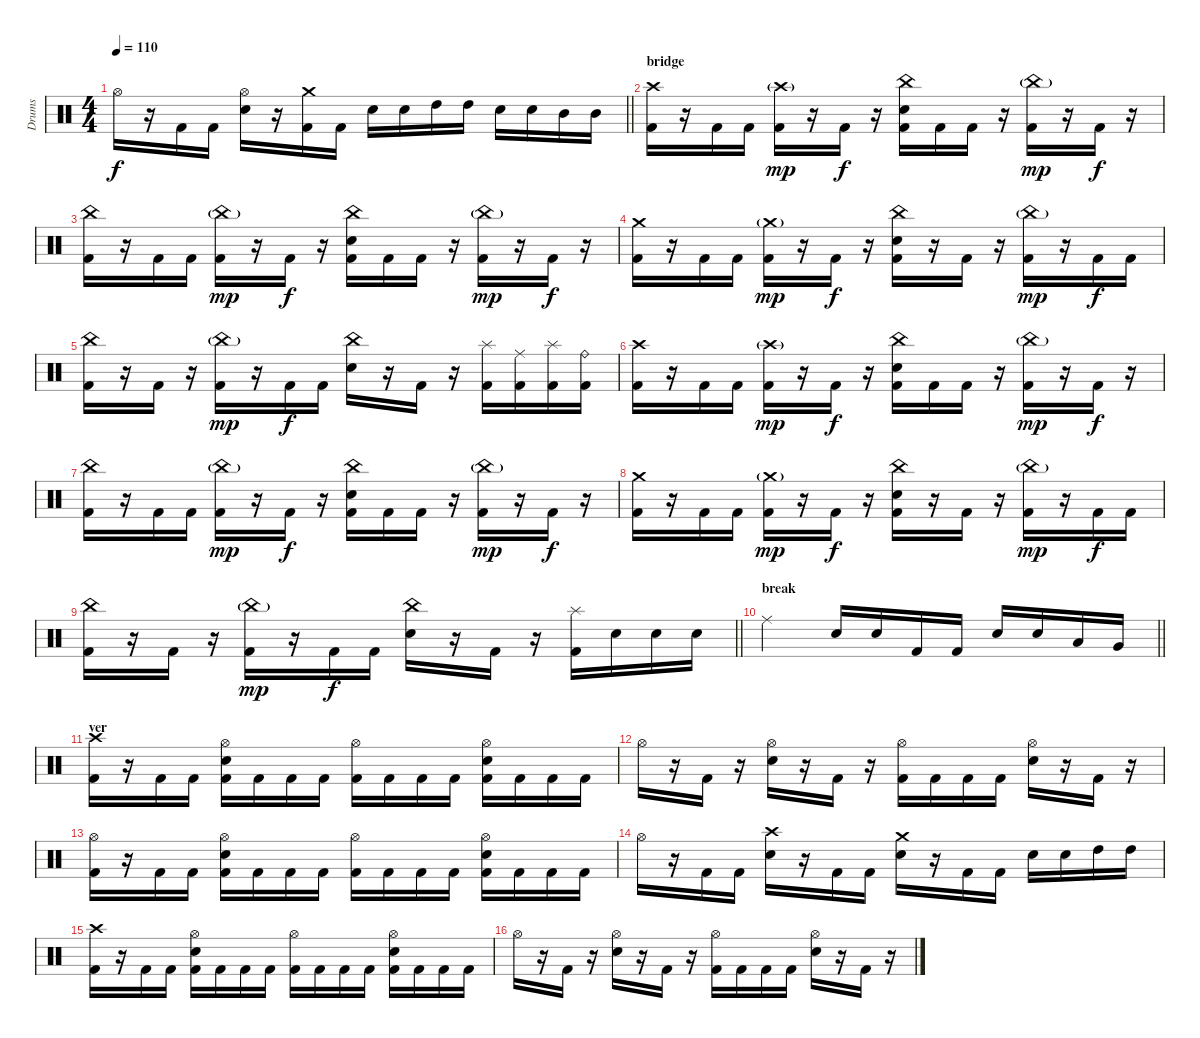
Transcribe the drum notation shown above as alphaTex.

\track ("Drums" "Drums") {instrument percussion}
\staff {score}
\articulation defaults
\ts (4 4)
\tempo 110
\clef neutral
\barLineRight lightlight
\ks c "Hi-Hat (open)".16{dy f}
r.16 "Kick (hit) 2".16 "Kick (hit) 2".16 ("Hi-Hat (open)" "Electric Snare (hit)").16 r.16 ("Crash medium (hit)" "Kick (hit) 2").16 "Kick (hit) 2".16 "Electric Snare (hit)".16 "Electric Snare (hit)".16 "High Tom (hit)".16 "High Tom (hit)".16 "Electric Snare (hit)".16 "Electric Snare (hit)".16 "Mid Tom (hit)".16 "Mid Tom (hit)".16 |
\section ("" "bridge")
("Crash high (hit)" "Kick (hit) 2").16 r.16 "Kick (hit) 2".16 "Kick (hit) 2".16 ("Crash high (hit)"{g} "Kick (hit) 2").16{dy mp} r.16 "Kick (hit) 2".16{dy f} r.16 ("China (hit)" "Electric Snare (hit)" "Kick (hit) 2").16 "Kick (hit) 2".16 "Kick (hit) 2".16 r.16 ("China (hit)"{g} "Kick (hit) 2").16{dy mp} r.16 "Kick (hit) 2".16{dy f} r.16 |
("China (hit)" "Kick (hit) 2").16 r.16 "Kick (hit) 2".16 "Kick (hit) 2".16 ("China (hit)"{g} "Kick (hit) 2").16{dy mp} r.16 "Kick (hit) 2".16{dy f} r.16 ("China (hit)" "Electric Snare (hit)" "Kick (hit) 2").16 "Kick (hit) 2".16 "Kick (hit) 2".16 r.16 ("China (hit)"{g} "Kick (hit) 2").16{dy mp} r.16 "Kick (hit) 2".16{dy f} r.16 |
("Crash medium (hit)" "Kick (hit) 2").16 r.16 "Kick (hit) 2".16 "Kick (hit) 2".16 ("Crash medium (hit)"{g} "Kick (hit) 2").16{dy mp} r.16 "Kick (hit) 2".16{dy f} r.16 ("China (hit)" "Electric Snare (hit)" "Kick (hit) 2").16 r.16 "Kick (hit) 2".16 r.16 ("China (hit)"{g} "Kick (hit) 2").16{dy mp} r.16 "Kick (hit) 2".16{dy f} "Kick (hit) 2".16 |
("China (hit)" "Kick (hit) 2").16 r.16 "Kick (hit) 2".16 r.16 ("China (hit)"{g} "Kick (hit) 2").16{dy mp} r.16 "Kick (hit) 2".16{dy f} "Kick (hit) 2".16 ("China (hit)" "Electric Snare (hit)").16 r.16 "Kick (hit) 2".16 r.16 ("Splash (hit)" "Kick (hit) 2").16 ("Ride (middle)" "Kick (hit) 2").16 ("Splash (hit)" "Kick (hit) 2").16 ("Ride (bell)" "Kick (hit) 2").16 |
("Crash high (hit)" "Kick (hit) 2").16 r.16 "Kick (hit) 2".16 "Kick (hit) 2".16 ("Crash high (hit)"{g} "Kick (hit) 2").16{dy mp} r.16 "Kick (hit) 2".16{dy f} r.16 ("China (hit)" "Electric Snare (hit)" "Kick (hit) 2").16 "Kick (hit) 2".16 "Kick (hit) 2".16 r.16 ("China (hit)"{g} "Kick (hit) 2").16{dy mp} r.16 "Kick (hit) 2".16{dy f} r.16 |
("China (hit)" "Kick (hit) 2").16 r.16 "Kick (hit) 2".16 "Kick (hit) 2".16 ("China (hit)"{g} "Kick (hit) 2").16{dy mp} r.16 "Kick (hit) 2".16{dy f} r.16 ("China (hit)" "Electric Snare (hit)" "Kick (hit) 2").16 "Kick (hit) 2".16 "Kick (hit) 2".16 r.16 ("China (hit)"{g} "Kick (hit) 2").16{dy mp} r.16 "Kick (hit) 2".16{dy f} r.16 |
("Crash medium (hit)" "Kick (hit) 2").16 r.16 "Kick (hit) 2".16 "Kick (hit) 2".16 ("Crash medium (hit)"{g} "Kick (hit) 2").16{dy mp} r.16 "Kick (hit) 2".16{dy f} r.16 ("China (hit)" "Electric Snare (hit)" "Kick (hit) 2").16 r.16 "Kick (hit) 2".16 r.16 ("China (hit)"{g} "Kick (hit) 2").16{dy mp} r.16 "Kick (hit) 2".16{dy f} "Kick (hit) 2".16 |
\barLineRight lightlight
("China (hit)" "Kick (hit) 2").16 r.16 "Kick (hit) 2".16 r.16 ("China (hit)"{g} "Kick (hit) 2").16{dy mp} r.16 "Kick (hit) 2".16{dy f} "Kick (hit) 2".16 ("China (hit)" "Electric Snare (hit)").16 r.16 "Kick (hit) 2".16 r.16 ("Splash (hit)" "Kick (hit) 2").16 "Electric Snare (hit)".16 "Electric Snare (hit)".16 "Electric Snare (hit)".16 |
\section ("" "break")
\barLineRight lightlight "Ride (middle)".2 "Electric Snare (hit)".16 "Electric Snare (hit)".16 "Kick (hit) 2".16 "Kick (hit) 2".16 "Electric Snare (hit)".16 "Electric Snare (hit)".16 "Low Tom (hit)".16 "Very Low Tom (hit)".16
|
\section ("" "ver")
("Crash high (hit)" "Kick (hit) 2").16 r.16 "Kick (hit) 2".16 "Kick (hit) 2".16 ("Hi-Hat (open)" "Electric Snare (hit)" "Kick (hit) 2").16 "Kick (hit) 2".16 "Kick (hit) 2".16 "Kick (hit) 2".16 ("Hi-Hat (open)" "Kick (hit) 2").16 "Kick (hit) 2".16 "Kick (hit) 2".16 "Kick (hit) 2".16 ("Hi-Hat (open)" "Electric Snare (hit)" "Kick (hit) 2").16 "Kick (hit) 2".16 "Kick (hit) 2".16 "Kick (hit) 2".16 |
"Hi-Hat (open)".16 r.16 "Kick (hit) 2".16 r.16 ("Hi-Hat (open)" "Electric Snare (hit)").16 r.16 "Kick (hit) 2".16 r.16 ("Hi-Hat (open)" "Kick (hit) 2").16 "Kick (hit) 2".16 "Kick (hit) 2".16 "Kick (hit) 2".16 ("Hi-Hat (open)" "Electric Snare (hit)").16 r.16 "Kick (hit) 2".16 r.16 |
("Hi-Hat (open)" "Kick (hit) 2").16 r.16 "Kick (hit) 2".16 "Kick (hit) 2".16 ("Hi-Hat (open)" "Electric Snare (hit)" "Kick (hit) 2").16 "Kick (hit) 2".16 "Kick (hit) 2".16 "Kick (hit) 2".16 ("Hi-Hat (open)" "Kick (hit) 2").16 "Kick (hit) 2".16 "Kick (hit) 2".16 "Kick (hit) 2".16 ("Hi-Hat (open)" "Electric Snare (hit)" "Kick (hit) 2").16 "Kick (hit) 2".16 "Kick (hit) 2".16 "Kick (hit) 2".16 |
"Hi-Hat (open)".16 r.16 "Kick (hit) 2".16 "Kick (hit) 2".16 ("Crash high (hit)" "Electric Snare (hit)").16 r.16 "Kick (hit) 2".16 "Kick (hit) 2".16 ("Crash medium (hit)" "Electric Snare (hit)").16 r.16 "Kick (hit) 2".16 "Kick (hit) 2".16 "Electric Snare (hit)".16 "Electric Snare (hit)".16 "High Tom (hit)".16 "High Tom (hit)".16 |
("Crash high (hit)" "Kick (hit) 2").16 r.16 "Kick (hit) 2".16 "Kick (hit) 2".16 ("Hi-Hat (open)" "Electric Snare (hit)" "Kick (hit) 2").16 "Kick (hit) 2".16 "Kick (hit) 2".16 "Kick (hit) 2".16 ("Hi-Hat (open)" "Kick (hit) 2").16 "Kick (hit) 2".16 "Kick (hit) 2".16 "Kick (hit) 2".16 ("Hi-Hat (open)" "Electric Snare (hit)" "Kick (hit) 2").16 "Kick (hit) 2".16 "Kick (hit) 2".16 "Kick (hit) 2".16 |
"Hi-Hat (open)".16 r.16 "Kick (hit) 2".16 r.16 ("Hi-Hat (open)" "Electric Snare (hit)").16 r.16 "Kick (hit) 2".16 r.16 ("Hi-Hat (open)" "Kick (hit) 2").16 "Kick (hit) 2".16 "Kick (hit) 2".16 "Kick (hit) 2".16 ("Hi-Hat (open)" "Electric Snare (hit)").16 r.16 "Kick (hit) 2".16 r.16
